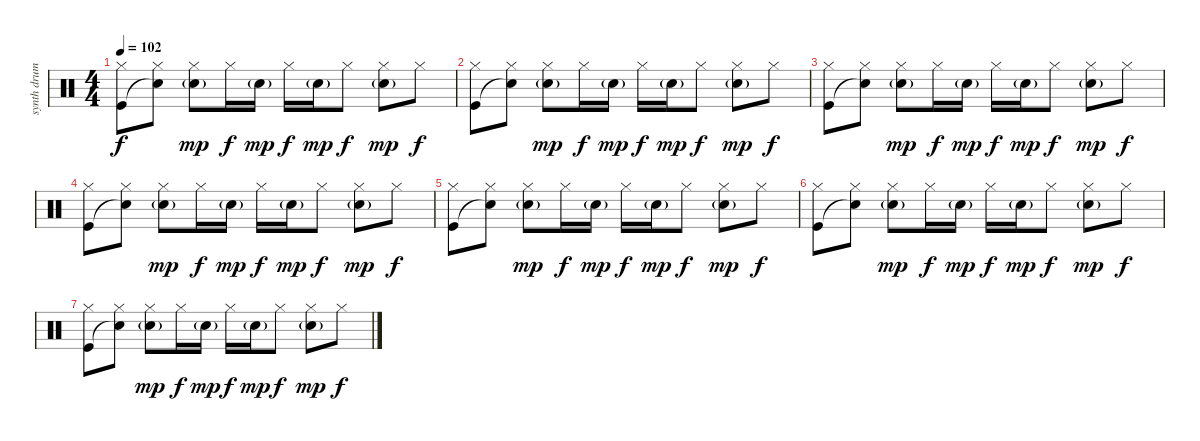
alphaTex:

\track ("synth drums" "synth drum") {instrument percussion}
\staff {score}
\articulation defaults
\ts (4 4)
\tempo 102
\clef neutral
\ks c
("Hi-Hat (closed)" "Kick (hit)").8{dy f} ("Hi-Hat (closed)" "Snare (hit)"{t}).8 ("Hi-Hat (closed)" "Electric Snare (hit)"{g}).8{dy mp} "Hi-Hat (closed)".16{dy f} "Electric Snare (hit)"{g}.16{dy mp} "Hi-Hat (closed)".16{dy f} "Electric Snare (hit)"{g}.16{dy mp} "Hi-Hat (closed)".8{dy f} ("Hi-Hat (closed)" "Electric Snare (hit)"{g}).8{dy mp} "Hi-Hat (closed)".8{dy f} |
("Hi-Hat (closed)" "Kick (hit)").8 ("Hi-Hat (closed)" "Snare (hit)"{t}).8 ("Hi-Hat (closed)" "Electric Snare (hit)"{g}).8{dy mp} "Hi-Hat (closed)".16{dy f} "Electric Snare (hit)"{g}.16{dy mp} "Hi-Hat (closed)".16{dy f} "Electric Snare (hit)"{g}.16{dy mp} "Hi-Hat (closed)".8{dy f} ("Hi-Hat (closed)" "Electric Snare (hit)"{g}).8{dy mp} "Hi-Hat (closed)".8{dy f} |
("Hi-Hat (closed)" "Kick (hit)").8 ("Hi-Hat (closed)" "Snare (hit)"{t}).8 ("Hi-Hat (closed)" "Electric Snare (hit)"{g}).8{dy mp} "Hi-Hat (closed)".16{dy f} "Electric Snare (hit)"{g}.16{dy mp} "Hi-Hat (closed)".16{dy f} "Electric Snare (hit)"{g}.16{dy mp} "Hi-Hat (closed)".8{dy f} ("Hi-Hat (closed)" "Electric Snare (hit)"{g}).8{dy mp} "Hi-Hat (closed)".8{dy f} |
("Hi-Hat (closed)" "Kick (hit)").8 ("Hi-Hat (closed)" "Snare (hit)"{t}).8 ("Hi-Hat (closed)" "Electric Snare (hit)"{g}).8{dy mp} "Hi-Hat (closed)".16{dy f} "Electric Snare (hit)"{g}.16{dy mp} "Hi-Hat (closed)".16{dy f} "Electric Snare (hit)"{g}.16{dy mp} "Hi-Hat (closed)".8{dy f} ("Hi-Hat (closed)" "Electric Snare (hit)"{g}).8{dy mp} "Hi-Hat (closed)".8{dy f} |
("Hi-Hat (closed)" "Kick (hit)").8 ("Hi-Hat (closed)" "Snare (hit)"{t}).8 ("Hi-Hat (closed)" "Electric Snare (hit)"{g}).8{dy mp} "Hi-Hat (closed)".16{dy f} "Electric Snare (hit)"{g}.16{dy mp} "Hi-Hat (closed)".16{dy f} "Electric Snare (hit)"{g}.16{dy mp} "Hi-Hat (closed)".8{dy f} ("Hi-Hat (closed)" "Electric Snare (hit)"{g}).8{dy mp} "Hi-Hat (closed)".8{dy f} |
("Hi-Hat (closed)" "Kick (hit)").8 ("Hi-Hat (closed)" "Snare (hit)"{t}).8 ("Hi-Hat (closed)" "Electric Snare (hit)"{g}).8{dy mp} "Hi-Hat (closed)".16{dy f} "Electric Snare (hit)"{g}.16{dy mp} "Hi-Hat (closed)".16{dy f} "Electric Snare (hit)"{g}.16{dy mp} "Hi-Hat (closed)".8{dy f} ("Hi-Hat (closed)" "Electric Snare (hit)"{g}).8{dy mp} "Hi-Hat (closed)".8{dy f} |
("Hi-Hat (closed)" "Kick (hit)").8 ("Hi-Hat (closed)" "Snare (hit)"{t}).8 ("Hi-Hat (closed)" "Electric Snare (hit)"{g}).8{dy mp} "Hi-Hat (closed)".16{dy f} "Electric Snare (hit)"{g}.16{dy mp} "Hi-Hat (closed)".16{dy f} "Electric Snare (hit)"{g}.16{dy mp} "Hi-Hat (closed)".8{dy f} ("Hi-Hat (closed)" "Electric Snare (hit)"{g}).8{dy mp} "Hi-Hat (closed)".8{dy f}
